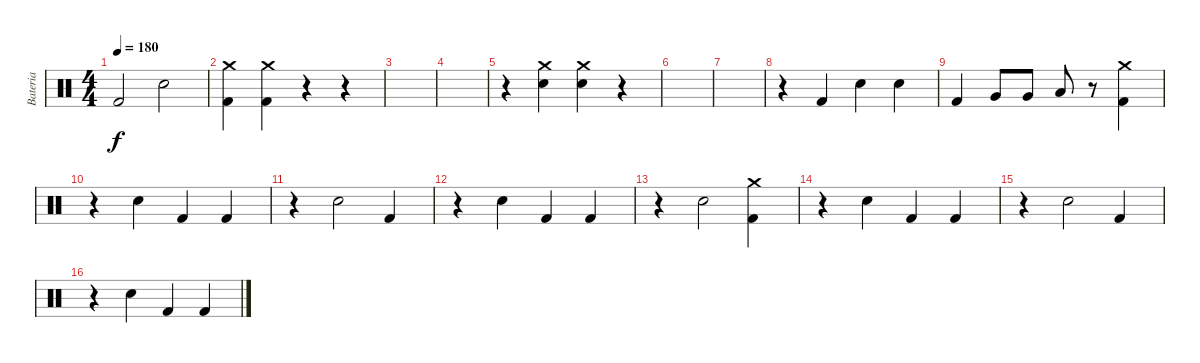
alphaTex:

\track ("Bateria" "Bateria") {instrument percussion}
\staff {score}
\articulation defaults
\ts (4 4)
\tempo 180
\clef neutral
\ks c "Kick (hit) 2".2{dy f} "Electric Snare (hit)".2
|
("Crash medium (hit)" "Kick (hit) 2").4 ("Crash medium (hit)" "Kick (hit) 2").4 r.4 r.4 |
|
|
r.4 ("Crash medium (hit)" "Electric Snare (hit)").4 ("Crash medium (hit)" "Electric Snare (hit)").4 r.4 |
|
|
r.4 "Kick (hit) 2".4 "Electric Snare (hit)".4 "Electric Snare (hit)".4 |
"Kick (hit) 2".4 "Very Low Tom (hit)".8 "Very Low Tom (hit)".8 "Low Floor Tom (hit)".8 r.8 ("Crash medium (hit)" "Kick (hit) 2").4 |
r.4 "Electric Snare (hit)".4 "Kick (hit) 2".4 "Kick (hit) 2".4 |
r.4 "Electric Snare (hit)".2 "Kick (hit) 2".4 |
r.4 "Electric Snare (hit)".4 "Kick (hit) 2".4 "Kick (hit) 2".4 |
r.4 "Electric Snare (hit)".2 ("Crash medium (hit)" "Kick (hit) 2").4 |
r.4 "Electric Snare (hit)".4 "Kick (hit) 2".4 "Kick (hit) 2".4 |
r.4 "Electric Snare (hit)".2 "Kick (hit) 2".4 |
r.4 "Electric Snare (hit)".4 "Kick (hit) 2".4 "Kick (hit) 2".4
